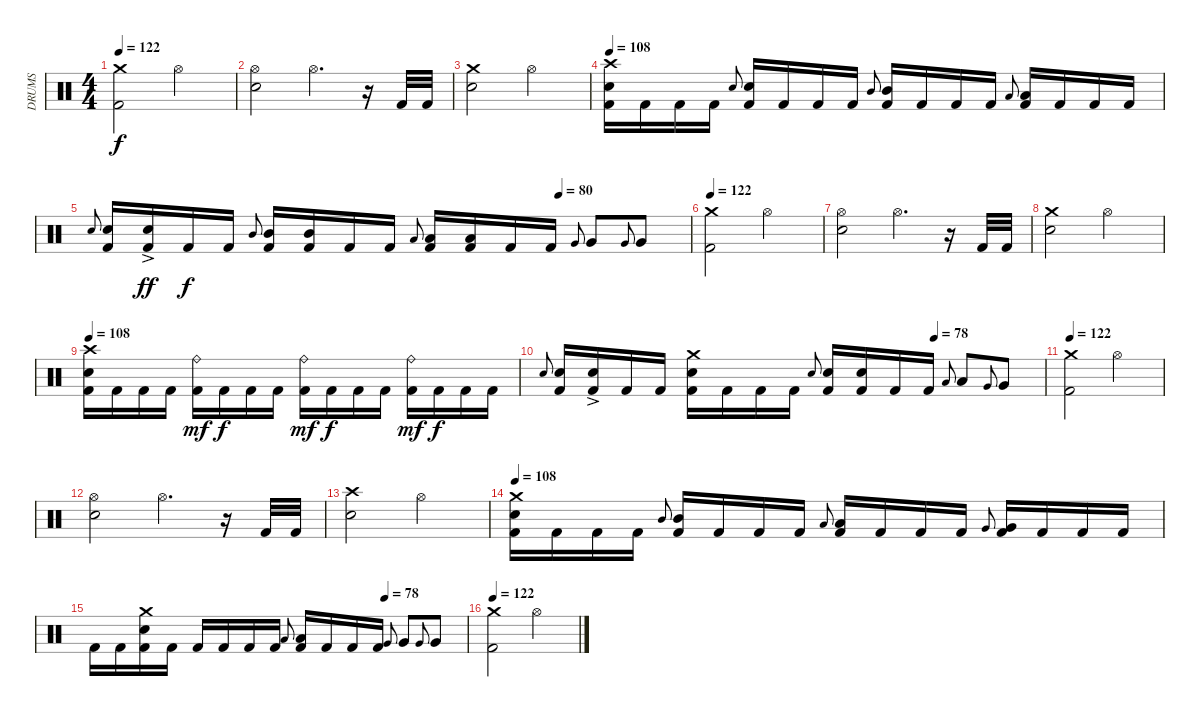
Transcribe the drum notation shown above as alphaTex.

\track ("DRUMS" "DRUMS") {instrument percussion}
\staff {score}
\articulation defaults
\ts (4 4)
\tempo 122
\clef neutral
\ks c
("Crash medium (hit)" "Kick (hit) 2").2{dy f} "Hi-Hat (open)".2 |
("Hi-Hat (open)" "Snare (hit) 2").2 "Hi-Hat (open)".4{d} r.16 "Kick (hit) 2".32 "Kick (hit) 2".32 |
("Crash medium (hit)" "Snare (hit) 2").2 "Hi-Hat (open)".2 |
\tempo 108
("Crash high (hit)" "Snare (hit) 2" "Kick (hit) 2").16 "Kick (hit) 2".16 "Kick (hit) 2".16 "Kick (hit) 2".16 "Snare (hit) 2".8{gr onbeat} ("Snare (hit) 2" "Kick (hit) 2").16 "Kick (hit) 2".16 "Kick (hit) 2".16 "Kick (hit) 2".16 "Mid Tom (hit)".8{gr onbeat} ("Mid Tom (hit)" "Kick (hit) 2").16 "Kick (hit) 2".16 "Kick (hit) 2".16 "Kick (hit) 2".16 "Low Tom (hit)".8{gr onbeat} ("Low Tom (hit)" "Kick (hit) 2").16 "Kick (hit) 2".16 "Kick (hit) 2".16 "Kick (hit) 2".16 |
\tempo (80 0.78125)
"Snare (hit) 2".8{gr onbeat} ("Snare (hit) 2" "Kick (hit) 2").16 ("Snare (hit) 2"{ac} "Kick (hit) 2").16{dy ff} "Kick (hit) 2".16{dy f} "Kick (hit) 2".16 "Mid Tom (hit)".8{gr onbeat} ("Mid Tom (hit)" "Kick (hit) 2").16 ("Mid Tom (hit)" "Kick (hit) 2").16 "Kick (hit) 2".16 "Kick (hit) 2".16 "Low Tom (hit)".8{gr onbeat} ("Low Tom (hit)" "Kick (hit) 2").16 ("Low Tom (hit)" "Kick (hit) 2").16 "Kick (hit) 2".16 "Kick (hit) 2".16 "Very Low Tom (hit)".8{gr onbeat} "Very Low Tom (hit)".8 "Very Low Tom (hit)".8{gr onbeat} "Very Low Tom (hit)".8 |
\tempo 122
("Crash medium (hit)" "Kick (hit) 2").2 "Hi-Hat (open)".2 |
("Hi-Hat (open)" "Snare (hit) 2").2 "Hi-Hat (open)".4{d} r.16 "Kick (hit) 2".32 "Kick (hit) 2".32 |
("Crash medium (hit)" "Snare (hit) 2").2 "Hi-Hat (open)".2 |
\tempo 108
("Crash high (hit)" "Snare (hit) 2" "Kick (hit) 2").16 "Kick (hit) 2".16 "Kick (hit) 2".16 "Kick (hit) 2".16 ("Ride (bell)" "Kick (hit) 2").16{dy mf} "Kick (hit) 2".16{dy f} "Kick (hit) 2".16 "Kick (hit) 2".16 ("Ride (bell)" "Kick (hit) 2").16{dy mf} "Kick (hit) 2".16{dy f} "Kick (hit) 2".16 "Kick (hit) 2".16 ("Ride (bell)" "Kick (hit) 2").16{dy mf} "Kick (hit) 2".16{dy f} "Kick (hit) 2".16 "Kick (hit) 2".16 |
\tempo (78 0.78125)
"Snare (hit) 2".8{gr onbeat} ("Snare (hit) 2" "Kick (hit) 2").16 ("Snare (hit) 2"{ac} "Kick (hit) 2").16 "Kick (hit) 2".16 "Kick (hit) 2".16 ("Crash medium (hit)" "Snare (hit) 2" "Kick (hit) 2").16 "Kick (hit) 2".16 "Kick (hit) 2".16 "Kick (hit) 2".16 "Snare (hit) 2".8{gr onbeat} ("Snare (hit) 2" "Kick (hit) 2").16 ("Snare (hit) 2" "Kick (hit) 2").16 "Kick (hit) 2".16 "Kick (hit) 2".16 "Low Tom (hit)".8{gr onbeat} "Low Tom (hit)".8 "Very Low Tom (hit)".8{gr onbeat} "Very Low Tom (hit)".8 |
\tempo 122
("Crash medium (hit)" "Kick (hit) 2").2 "Hi-Hat (open)".2 |
("Hi-Hat (open)" "Snare (hit) 2").2 "Hi-Hat (open)".4{d} r.16 "Kick (hit) 2".32 "Kick (hit) 2".32 |
("Crash high (hit)" "Snare (hit) 2").2 "Hi-Hat (open)".2 |
\tempo 108
("Crash medium (hit)" "Snare (hit) 2" "Kick (hit) 2").16 "Kick (hit) 2".16 "Kick (hit) 2".16 "Kick (hit) 2".16 "Mid Tom (hit)".8{gr onbeat} ("Mid Tom (hit)" "Kick (hit) 2").16 "Kick (hit) 2".16 "Kick (hit) 2".16 "Kick (hit) 2".16 "Low Tom (hit)".8{gr onbeat} ("Low Tom (hit)" "Kick (hit) 2").16 "Kick (hit) 2".16 "Kick (hit) 2".16 "Kick (hit) 2".16 "Very Low Tom (hit)".8{gr onbeat} ("Very Low Tom (hit)" "Kick (hit) 2").16 "Kick (hit) 2".16 "Kick (hit) 2".16 "Kick (hit) 2".16 |
\tempo (78 0.78125)
"Kick (hit) 2".16 "Kick (hit) 2".16 ("Crash medium (hit)" "Snare (hit) 2" "Kick (hit) 2").16 "Kick (hit) 2".16 "Kick (hit) 2".16 "Kick (hit) 2".16 "Kick (hit) 2".16 "Kick (hit) 2".16 "Low Tom (hit)".8{gr onbeat} ("Low Tom (hit)" "Kick (hit) 2").16 "Kick (hit) 2".16 "Kick (hit) 2".16 "Kick (hit) 2".16 "Very Low Tom (hit)".8{gr onbeat} "Very Low Tom (hit)".8 "Very Low Tom (hit)".8{gr onbeat} "Very Low Tom (hit)".8 |
\tempo 122
("Crash medium (hit)" "Kick (hit) 2").2 "Hi-Hat (open)".2
